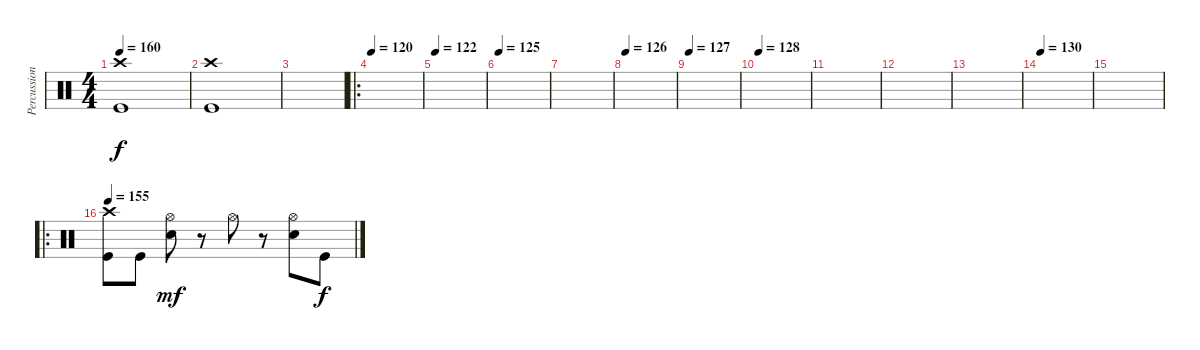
\track ("Percussions" "Percussion") {instrument percussion}
\staff {score}
\articulation defaults
\ts (4 4)
\tempo 160
\clef neutral
\ks c
("Kick (hit)" "Crash high (hit)").1{dy f} |
("Kick (hit)" "Crash high (hit)").1 |
|
\ro
\tempo 120
|
\tempo 122
|
\tempo 125
|
|
\tempo 126
|
\tempo 127
|
\tempo 128
|
|
|
|
\tempo 130
|
|
\ro
\tempo 155
("Kick (hit)" "Crash high (hit)").8 "Kick (hit)".8 ("Electric Snare (hit)" "Hi-Hat (open)").8{dy mf} r.8 "Hi-Hat (open)".8 r.8 ("Electric Snare (hit)" "Hi-Hat (open)").8 "Kick (hit)".8{dy f}
